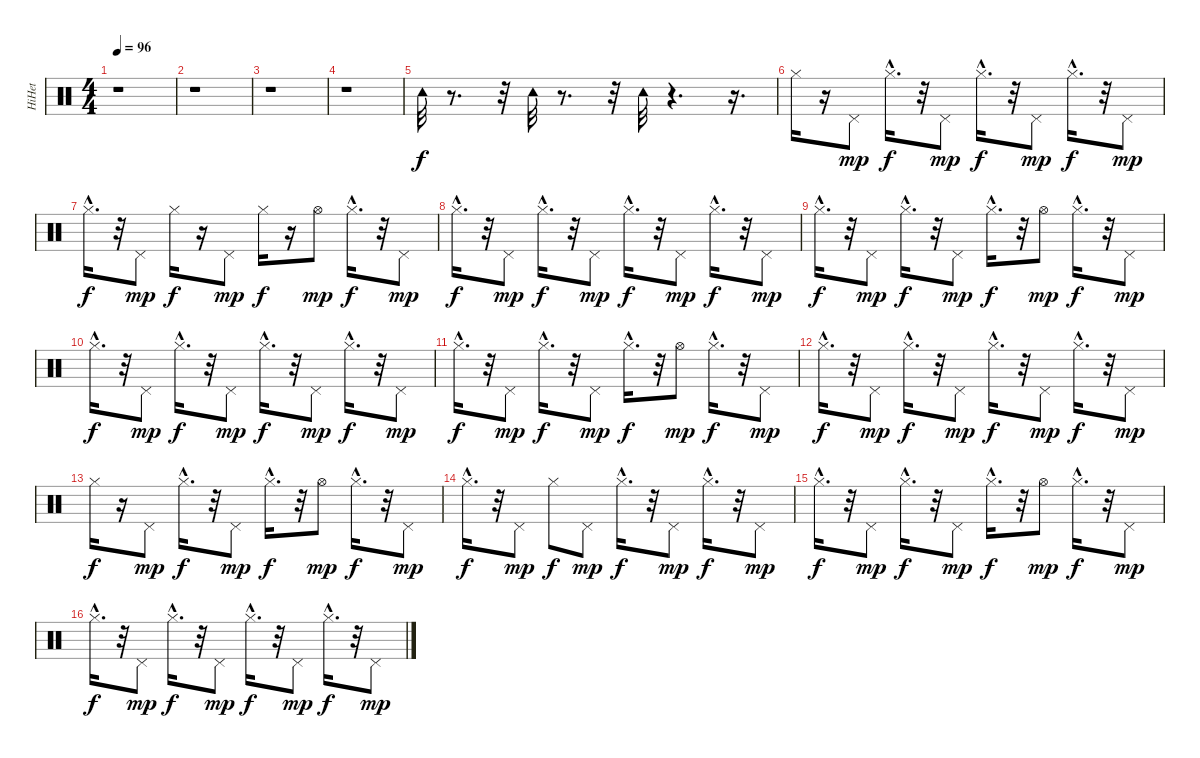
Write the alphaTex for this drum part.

\track ("HiHet" "HiHet") {instrument percussion}
\staff {score}
\articulation defaults
\ts (4 4)
\tempo 96
\clef neutral
\ks c
r.1{dy f} |
r.1 |
r.1 |
r.1 |
"Tambourine (hit)".32 r.8{d} r.32 "Tambourine (hit)".32 r.8{d} r.32 "Tambourine (hit)".32 r.4{d} r.16{d} |
"Hi-Hat (closed)".16 r.16 "Pedal Hi-Hat (hit)".8{dy mp} "Hi-Hat (closed)"{hac}.16{d dy f} r.32 "Pedal Hi-Hat (hit)".8{dy mp} "Hi-Hat (closed)"{hac}.16{d dy f} r.32 "Pedal Hi-Hat (hit)".8{dy mp} "Hi-Hat (closed)"{hac}.16{d dy f} r.32 "Pedal Hi-Hat (hit)".8{dy mp} |
"Hi-Hat (closed)"{hac}.16{d dy f} r.32 "Pedal Hi-Hat (hit)".8{dy mp} "Hi-Hat (closed)".16{dy f} r.16 "Pedal Hi-Hat (hit)".8{dy mp} "Hi-Hat (closed)".16{dy f} r.16 "Hi-Hat (open)".8{dy mp} "Hi-Hat (closed)"{hac}.16{d dy f} r.32 "Pedal Hi-Hat (hit)".8{dy mp} |
"Hi-Hat (closed)"{hac}.16{d dy f} r.32 "Pedal Hi-Hat (hit)".8{dy mp} "Hi-Hat (closed)"{hac}.16{d dy f} r.32 "Pedal Hi-Hat (hit)".8{dy mp} "Hi-Hat (closed)"{hac}.16{d dy f} r.32 "Pedal Hi-Hat (hit)".8{dy mp} "Hi-Hat (closed)"{hac}.16{d dy f} r.32 "Pedal Hi-Hat (hit)".8{dy mp} |
"Hi-Hat (closed)"{hac}.16{d dy f} r.32 "Pedal Hi-Hat (hit)".8{dy mp} "Hi-Hat (closed)"{hac}.16{d dy f} r.32 "Pedal Hi-Hat (hit)".8{dy mp} "Hi-Hat (closed)"{hac}.16{d dy f} r.32 "Hi-Hat (open)".8{dy mp} "Hi-Hat (closed)"{hac}.16{d dy f} r.32 "Pedal Hi-Hat (hit)".8{dy mp} |
"Hi-Hat (closed)"{hac}.16{d dy f} r.32 "Pedal Hi-Hat (hit)".8{dy mp} "Hi-Hat (closed)"{hac}.16{d dy f} r.32 "Pedal Hi-Hat (hit)".8{dy mp} "Hi-Hat (closed)"{hac}.16{d dy f} r.32 "Pedal Hi-Hat (hit)".8{dy mp} "Hi-Hat (closed)"{hac}.16{d dy f} r.32 "Pedal Hi-Hat (hit)".8{dy mp} |
"Hi-Hat (closed)"{hac}.16{d dy f} r.32 "Pedal Hi-Hat (hit)".8{dy mp} "Hi-Hat (closed)"{hac}.16{d dy f} r.32 "Pedal Hi-Hat (hit)".8{dy mp} "Hi-Hat (closed)"{hac}.16{d dy f} r.32 "Hi-Hat (open)".8{dy mp} "Hi-Hat (closed)"{hac}.16{d dy f} r.32 "Pedal Hi-Hat (hit)".8{dy mp} |
"Hi-Hat (closed)"{hac}.16{d dy f} r.32 "Pedal Hi-Hat (hit)".8{dy mp} "Hi-Hat (closed)"{hac}.16{d dy f} r.32 "Pedal Hi-Hat (hit)".8{dy mp} "Hi-Hat (closed)"{hac}.16{d dy f} r.32 "Pedal Hi-Hat (hit)".8{dy mp} "Hi-Hat (closed)"{hac}.16{d dy f} r.32 "Pedal Hi-Hat (hit)".8{dy mp} |
"Hi-Hat (closed)".16{dy f} r.16 "Pedal Hi-Hat (hit)".8{dy mp} "Hi-Hat (closed)"{hac}.16{d dy f} r.32 "Pedal Hi-Hat (hit)".8{dy mp} "Hi-Hat (closed)"{hac}.16{d dy f} r.32 "Hi-Hat (open)".8{dy mp} "Hi-Hat (closed)"{hac}.16{d dy f} r.32 "Pedal Hi-Hat (hit)".8{dy mp} |
"Hi-Hat (closed)"{hac}.16{d dy f} r.32 "Pedal Hi-Hat (hit)".8{dy mp} "Hi-Hat (closed)".8{dy f} "Pedal Hi-Hat (hit)".8{dy mp} "Hi-Hat (closed)"{hac}.16{d dy f} r.32 "Pedal Hi-Hat (hit)".8{dy mp} "Hi-Hat (closed)"{hac}.16{d dy f} r.32 "Pedal Hi-Hat (hit)".8{dy mp} |
"Hi-Hat (closed)"{hac}.16{d dy f} r.32 "Pedal Hi-Hat (hit)".8{dy mp} "Hi-Hat (closed)"{hac}.16{d dy f} r.32 "Pedal Hi-Hat (hit)".8{dy mp} "Hi-Hat (closed)"{hac}.16{d dy f} r.32 "Hi-Hat (open)".8{dy mp} "Hi-Hat (closed)"{hac}.16{d dy f} r.32 "Pedal Hi-Hat (hit)".8{dy mp} |
"Hi-Hat (closed)"{hac}.16{d dy f} r.32 "Pedal Hi-Hat (hit)".8{dy mp} "Hi-Hat (closed)"{hac}.16{d dy f} r.32 "Pedal Hi-Hat (hit)".8{dy mp} "Hi-Hat (closed)"{hac}.16{d dy f} r.32 "Pedal Hi-Hat (hit)".8{dy mp} "Hi-Hat (closed)"{hac}.16{d dy f} r.32 "Pedal Hi-Hat (hit)".8{dy mp}
